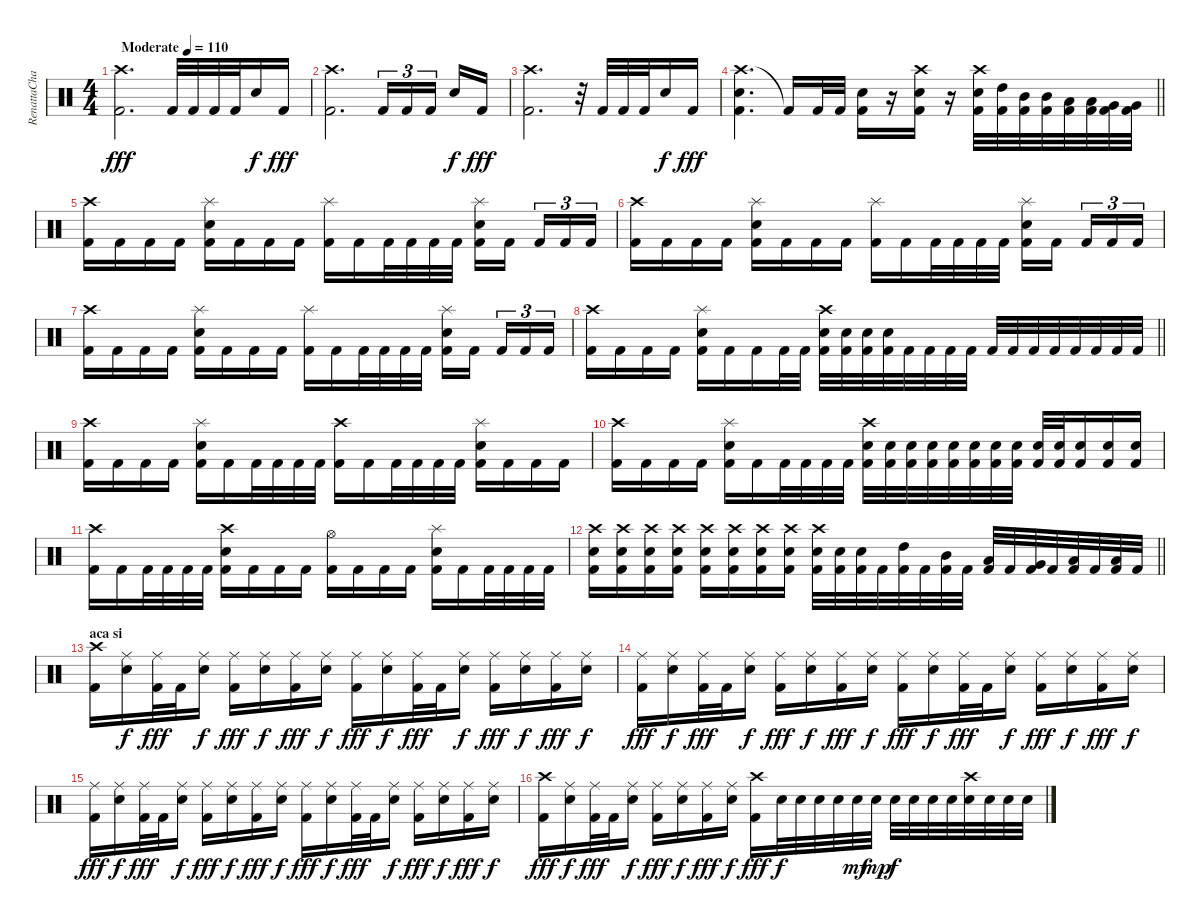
\track ("RenattaCharat" "RenattaCha") {instrument percussion}
\staff {score}
\articulation defaults
\ts (4 4)
\tempo (110 "Moderate")
\clef neutral
\ks c
("Crash high (hit)" "Kick (hit) 2").2{d dy fff} "Kick (hit) 2".32 "Kick (hit) 2".32 "Kick (hit) 2".32 "Kick (hit) 2".32 "Snare (hit) 2".16{dy f} "Kick (hit) 2".16{dy fff} |
("Crash high (hit)" "Kick (hit) 2").2{d} "Kick (hit) 2".16{tu (3 2)} "Kick (hit) 2".16{tu (3 2)} "Kick (hit) 2".16{tu (3 2) beam splitsecondary} "Snare (hit) 2".16{dy f} "Kick (hit) 2".16{dy fff} |
("Crash high (hit)" "Kick (hit) 2").2{d} r.32 "Kick (hit) 2".32 "Kick (hit) 2".32 "Kick (hit) 2".32 "Snare (hit) 2".16{dy f} "Kick (hit) 2".16{dy fff} |
\barLineRight lightlight
("Crash high (hit)" "Snare (hit) 2" "Kick (hit) 2").4{d} "Kick (hit) 2"{t}.16 "Kick (hit) 2".32 "Kick (hit) 2".32 ("Snare (hit) 2" "Kick (hit) 2").16 r.16 ("Crash high (hit)" "Snare (hit) 2" "Kick (hit) 2").16 r.16 ("Crash high (hit)" "Snare (hit) 2" "Kick (hit) 2").32 ("High Tom (hit)" "Kick (hit) 2").32 ("Mid Tom (hit)" "Kick (hit) 2").32 ("Mid Tom (hit)" "Kick (hit) 2").32 ("Low Tom (hit)" "Kick (hit) 2").32 ("Low Tom (hit)" "Kick (hit) 2").32 ("Very Low Tom (hit)" "Kick (hit) 2").32 ("Very Low Tom (hit)" "Kick (hit) 2").32 |
("Crash high (hit)" "Kick (hit) 2").16 "Kick (hit) 2".16 "Kick (hit) 2".16 "Kick (hit) 2".16 ("Splash (hit)" "Snare (hit) 2" "Kick (hit) 2").16 "Kick (hit) 2".16 "Kick (hit) 2".16 "Kick (hit) 2".16 ("Splash (hit)" "Kick (hit) 2").16 "Kick (hit) 2".16 "Kick (hit) 2".32 "Kick (hit) 2".32 "Kick (hit) 2".32 "Kick (hit) 2".32 ("Splash (hit)" "Snare (hit) 2" "Kick (hit) 2").16 "Kick (hit) 2".16{beam splitsecondary} "Kick (hit) 2".16{tu (3 2)} "Kick (hit) 2".16{tu (3 2)} "Kick (hit) 2".16{tu (3 2)} |
("Crash high (hit)" "Kick (hit) 2").16 "Kick (hit) 2".16 "Kick (hit) 2".16 "Kick (hit) 2".16 ("Splash (hit)" "Snare (hit) 2" "Kick (hit) 2").16 "Kick (hit) 2".16 "Kick (hit) 2".16 "Kick (hit) 2".16 ("Splash (hit)" "Kick (hit) 2").16 "Kick (hit) 2".16 "Kick (hit) 2".32 "Kick (hit) 2".32 "Kick (hit) 2".32 "Kick (hit) 2".32 ("Splash (hit)" "Snare (hit) 2" "Kick (hit) 2").16 "Kick (hit) 2".16{beam splitsecondary} "Kick (hit) 2".16{tu (3 2)} "Kick (hit) 2".16{tu (3 2)} "Kick (hit) 2".16{tu (3 2)} |
("Crash high (hit)" "Kick (hit) 2").16 "Kick (hit) 2".16 "Kick (hit) 2".16 "Kick (hit) 2".16 ("Splash (hit)" "Snare (hit) 2" "Kick (hit) 2").16 "Kick (hit) 2".16 "Kick (hit) 2".16 "Kick (hit) 2".16 ("Splash (hit)" "Kick (hit) 2").16 "Kick (hit) 2".16 "Kick (hit) 2".32 "Kick (hit) 2".32 "Kick (hit) 2".32 "Kick (hit) 2".32 ("Splash (hit)" "Snare (hit) 2" "Kick (hit) 2").16 "Kick (hit) 2".16{beam splitsecondary} "Kick (hit) 2".16{tu (3 2)} "Kick (hit) 2".16{tu (3 2)} "Kick (hit) 2".16{tu (3 2)} |
\barLineRight lightlight
("Crash high (hit)" "Kick (hit) 2").16 "Kick (hit) 2".16 "Kick (hit) 2".16 "Kick (hit) 2".16 ("Splash (hit)" "Snare (hit) 2" "Kick (hit) 2").16 "Kick (hit) 2".16 "Kick (hit) 2".16 "Kick (hit) 2".32 "Kick (hit) 2".32 ("Crash high (hit)" "Snare (hit) 2" "Kick (hit) 2").32 ("Snare (hit) 2" "Kick (hit) 2").32 ("Snare (hit) 2" "Kick (hit) 2").32 ("Snare (hit) 2" "Kick (hit) 2").32 "Kick (hit) 2".32 "Kick (hit) 2".32 "Kick (hit) 2".32 "Kick (hit) 2".32 "Kick (hit) 2".32 "Kick (hit) 2".32 "Kick (hit) 2".32 "Kick (hit) 2".32 "Kick (hit) 2".32 "Kick (hit) 2".32 "Kick (hit) 2".32 "Kick (hit) 2".32 |
("Crash high (hit)" "Kick (hit) 2").16 "Kick (hit) 2".16 "Kick (hit) 2".16 "Kick (hit) 2".16 ("Splash (hit)" "Snare (hit) 2" "Kick (hit) 2").16 "Kick (hit) 2".16 "Kick (hit) 2".32 "Kick (hit) 2".32 "Kick (hit) 2".32 "Kick (hit) 2".32 ("Crash high (hit)" "Kick (hit) 2").16 "Kick (hit) 2".16 "Kick (hit) 2".32 "Kick (hit) 2".32 "Kick (hit) 2".32 "Kick (hit) 2".32 ("Splash (hit)" "Snare (hit) 2" "Kick (hit) 2").16 "Kick (hit) 2".16 "Kick (hit) 2".16 "Kick (hit) 2".16 |
("Crash high (hit)" "Kick (hit) 2").16 "Kick (hit) 2".16 "Kick (hit) 2".16 "Kick (hit) 2".16 ("Splash (hit)" "Snare (hit) 2" "Kick (hit) 2").16 "Kick (hit) 2".16 "Kick (hit) 2".32 "Kick (hit) 2".32 "Kick (hit) 2".32 "Kick (hit) 2".32 ("Crash high (hit)" "Snare (hit) 2" "Kick (hit) 2").32 ("Snare (hit) 2" "Kick (hit) 2").32 ("Snare (hit) 2" "Kick (hit) 2").32 ("Snare (hit) 2" "Kick (hit) 2").32 ("Snare (hit) 2" "Kick (hit) 2").32 ("Snare (hit) 2" "Kick (hit) 2").32 ("Snare (hit) 2" "Kick (hit) 2").32 ("Snare (hit) 2" "Kick (hit) 2").32 ("Snare (hit) 2" "Kick (hit) 2").32 ("Snare (hit) 2" "Kick (hit) 2").32 ("Snare (hit) 2" "Kick (hit) 2").16 ("Snare (hit) 2" "Kick (hit) 2").16 ("Snare (hit) 2" "Kick (hit) 2").16 |
("Crash high (hit)" "Kick (hit) 2").16 "Kick (hit) 2".16 "Kick (hit) 2".32 "Kick (hit) 2".32 "Kick (hit) 2".32 "Kick (hit) 2".32 ("Crash high (hit)" "Snare (hit) 2" "Kick (hit) 2").16 "Kick (hit) 2".16 "Kick (hit) 2".16 "Kick (hit) 2".16 ("Hi-Hat (open)" "Kick (hit) 2").16 "Kick (hit) 2".16 "Kick (hit) 2".16 "Kick (hit) 2".16 ("Splash (hit)" "Snare (hit) 2" "Kick (hit) 2").16 "Kick (hit) 2".16 "Kick (hit) 2".32 "Kick (hit) 2".32 "Kick (hit) 2".32 "Kick (hit) 2".32 |
\barLineRight lightlight
("Crash high (hit)" "Snare (hit) 2" "Kick (hit) 2").16 ("Crash high (hit)" "Snare (hit) 2" "Kick (hit) 2").16 ("Crash high (hit)" "Snare (hit) 2" "Kick (hit) 2").16 ("Crash high (hit)" "Snare (hit) 2" "Kick (hit) 2").16 ("Crash high (hit)" "Snare (hit) 2" "Kick (hit) 2").16 ("Crash high (hit)" "Snare (hit) 2" "Kick (hit) 2").16 ("Crash high (hit)" "Snare (hit) 2" "Kick (hit) 2").16 ("Crash high (hit)" "Snare (hit) 2" "Kick (hit) 2").16 ("Crash high (hit)" "Snare (hit) 2" "Kick (hit) 2").32 ("Snare (hit) 2" "Kick (hit) 2").32 ("Snare (hit) 2" "Kick (hit) 2").32 "Kick (hit) 2".32 ("High Tom (hit)" "Kick (hit) 2").32 "Kick (hit) 2".32 ("Mid Tom (hit)" "Kick (hit) 2").32 "Kick (hit) 2".32 ("Low Tom (hit)" "Kick (hit) 2").32 "Kick (hit) 2".32 ("Very Low Tom (hit)" "Kick (hit) 2").32 "Kick (hit) 2".32 ("Low Floor Tom (hit)" "Kick (hit) 2").32 "Kick (hit) 2".32 ("Low Floor Tom (hit)" "Kick (hit) 2").32 "Kick (hit) 2".32 |
\section ("" "aca si")
("Crash high (hit)" "Kick (hit) 2").16 ("Ride (middle)" "Snare (hit) 2").16{dy f} ("Ride (middle)" "Kick (hit) 2").32{dy fff} "Kick (hit) 2".32 ("Ride (middle)" "Snare (hit) 2").16{dy f} ("Ride (middle)" "Kick (hit) 2").16{dy fff} ("Ride (middle)" "Snare (hit) 2").16{dy f} ("Ride (middle)" "Kick (hit) 2").16{dy fff} ("Ride (middle)" "Snare (hit) 2").16{dy f} ("Ride (middle)" "Kick (hit) 2").16{dy fff} ("Ride (middle)" "Snare (hit) 2").16{dy f} ("Ride (middle)" "Kick (hit) 2").32{dy fff} "Kick (hit) 2".32 ("Ride (middle)" "Snare (hit) 2").16{dy f} ("Ride (middle)" "Kick (hit) 2").16{dy fff} ("Ride (middle)" "Snare (hit) 2").16{dy f} ("Ride (middle)" "Kick (hit) 2").16{dy fff} ("Ride (middle)" "Snare (hit) 2").16{dy f} |
("Ride (middle)" "Kick (hit) 2").16{dy fff} ("Ride (middle)" "Snare (hit) 2").16{dy f} ("Ride (middle)" "Kick (hit) 2").32{dy fff} "Kick (hit) 2".32 ("Ride (middle)" "Snare (hit) 2").16{dy f} ("Ride (middle)" "Kick (hit) 2").16{dy fff} ("Ride (middle)" "Snare (hit) 2").16{dy f} ("Ride (middle)" "Kick (hit) 2").16{dy fff} ("Ride (middle)" "Snare (hit) 2").16{dy f} ("Ride (middle)" "Kick (hit) 2").16{dy fff} ("Ride (middle)" "Snare (hit) 2").16{dy f} ("Ride (middle)" "Kick (hit) 2").32{dy fff} "Kick (hit) 2".32 ("Ride (middle)" "Snare (hit) 2").16{dy f} ("Ride (middle)" "Kick (hit) 2").16{dy fff} ("Ride (middle)" "Snare (hit) 2").16{dy f} ("Ride (middle)" "Kick (hit) 2").16{dy fff} ("Ride (middle)" "Snare (hit) 2").16{dy f} |
("Ride (middle)" "Kick (hit) 2").16{dy fff} ("Ride (middle)" "Snare (hit) 2").16{dy f} ("Ride (middle)" "Kick (hit) 2").32{dy fff} "Kick (hit) 2".32 ("Ride (middle)" "Snare (hit) 2").16{dy f} ("Ride (middle)" "Kick (hit) 2").16{dy fff} ("Ride (middle)" "Snare (hit) 2").16{dy f} ("Ride (middle)" "Kick (hit) 2").16{dy fff} ("Ride (middle)" "Snare (hit) 2").16{dy f} ("Ride (middle)" "Kick (hit) 2").16{dy fff} ("Ride (middle)" "Snare (hit) 2").16{dy f} ("Ride (middle)" "Kick (hit) 2").32{dy fff} "Kick (hit) 2".32 ("Ride (middle)" "Snare (hit) 2").16{dy f} ("Ride (middle)" "Kick (hit) 2").16{dy fff} ("Ride (middle)" "Snare (hit) 2").16{dy f} ("Ride (middle)" "Kick (hit) 2").16{dy fff} ("Ride (middle)" "Snare (hit) 2").16{dy f} |
("Crash high (hit)" "Kick (hit) 2").16{dy fff} ("Ride (middle)" "Snare (hit) 2").16{dy f} ("Ride (middle)" "Kick (hit) 2").32{dy fff} "Kick (hit) 2".32 ("Ride (middle)" "Snare (hit) 2").16{dy f} ("Ride (middle)" "Kick (hit) 2").16{dy fff} ("Ride (middle)" "Snare (hit) 2").16{dy f} ("Ride (middle)" "Kick (hit) 2").16{dy fff} ("Ride (middle)" "Snare (hit) 2").16{dy f} ("Crash high (hit)" "Kick (hit) 2").16{dy fff} "Snare (hit) 2".32{dy f} "Snare (hit) 2".32 "Snare (hit) 2".32 "Snare (hit) 2".32 "Snare (hit) 2".32{dy mf} "Snare (hit) 2".32{dy mp} "Snare (hit) 2".32{dy f} "Snare (hit) 2".32 "Snare (hit) 2".32 "Snare (hit) 2".32 ("Crash high (hit)" "Snare (hit) 2").32 "Snare (hit) 2".32 "Snare (hit) 2".32 "Snare (hit) 2".32
